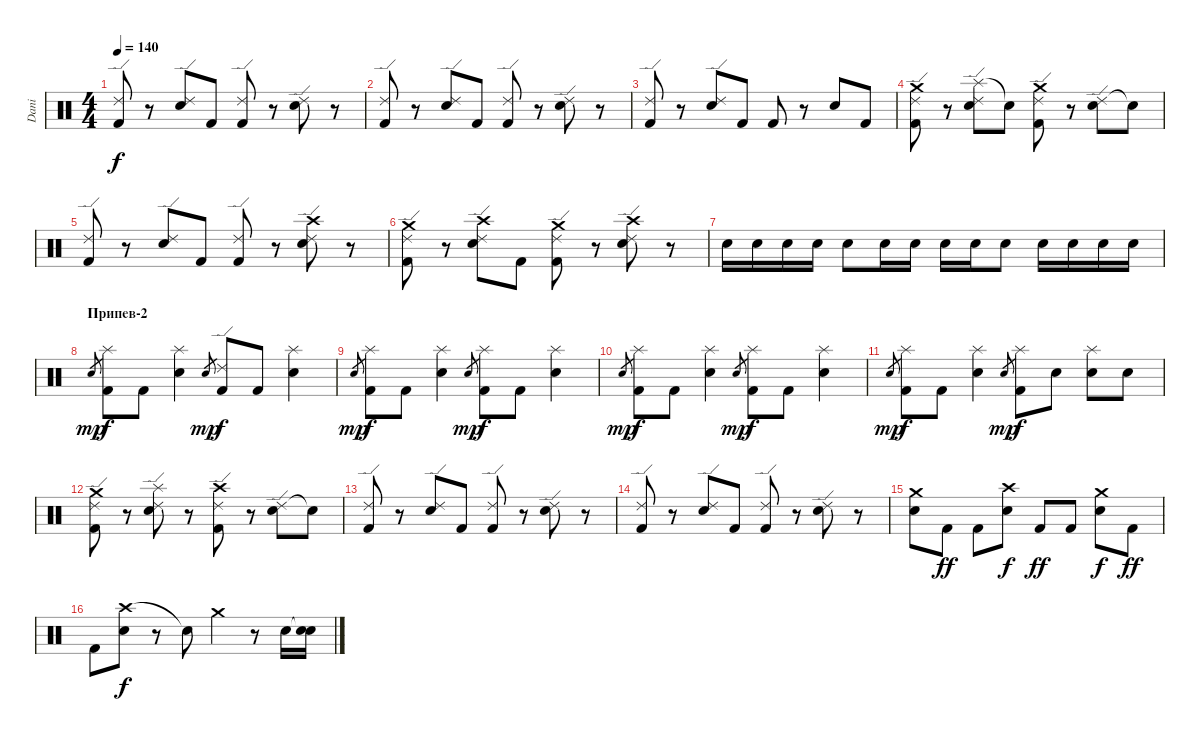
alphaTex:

\track ("Dani" "Dani") {instrument percussion}
\staff {score}
\articulation defaults
\ts (4 4)
\tempo 140
\clef neutral
\ks c
("Ride (edge) 2" "Kick (hit) 2").8{dy f} r.8 ("Ride (edge) 2" "Snare (hit) 2").8 "Kick (hit) 2".8 ("Ride (edge) 2" "Kick (hit) 2").8 r.8 ("Ride (edge) 2" "Snare (hit) 2").8 r.8 |
("Ride (edge) 2" "Kick (hit) 2").8 r.8 ("Ride (edge) 2" "Snare (hit) 2").8 "Kick (hit) 2".8 ("Ride (edge) 2" "Kick (hit) 2").8 r.8 ("Ride (edge) 2" "Snare (hit) 2").8 r.8 |
("Ride (edge) 2" "Kick (hit) 2").8 r.8 ("Ride (edge) 2" "Snare (hit) 2").8 "Kick (hit) 2".8 "Kick (hit) 2".8 r.8 "Snare (hit) 2".8 "Kick (hit) 2".8 |
("Crash medium (hit)" "Ride (edge) 2" "Kick (hit) 2").8 r.8 ("Splash (hit)" "Ride (edge) 2" "Snare (hit) 2").8 "Snare (hit)"{t}.8 ("Crash medium (hit)" "Ride (edge) 2" "Kick (hit) 2").8 r.8 ("Ride (edge) 2" "Snare (hit) 2").8 "Snare (hit)"{t}.8 |
("Ride (edge) 2" "Kick (hit) 2").8 r.8 ("Ride (edge) 2" "Snare (hit) 2").8 "Kick (hit) 2".8 ("Ride (edge) 2" "Kick (hit) 2").8 r.8 ("Crash high (hit)" "Ride (edge) 2" "Snare (hit) 2").8 r.8 |
("Crash medium (hit)" "Ride (edge) 2" "Kick (hit) 2").8 r.8 ("Crash high (hit)" "Ride (edge) 2" "Snare (hit) 2").8 "Kick (hit) 2".8 ("Crash medium (hit)" "Ride (edge) 2" "Kick (hit) 2").8 r.8 ("Crash high (hit)" "Ride (edge) 2" "Snare (hit) 2").8 r.8 |
"Snare (hit) 2".16 "Snare (hit) 2".16 "Snare (hit) 2".16 "Snare (hit) 2".16 "Snare (hit) 2".8 "Snare (hit) 2".16 "Snare (hit) 2".16 "Snare (hit) 2".16 "Snare (hit) 2".16 "Snare (hit) 2".8 "Snare (hit) 2".16 "Snare (hit) 2".16 "Snare (hit) 2".16 "Snare (hit) 2".16 |
\section ("" "Припев-2")
"Snare (hit) 2".8{gr dy mp} ("Splash (hit)" "Kick (hit) 2").8{dy f} "Kick (hit) 2".8 ("Splash (hit)" "Snare (hit) 2").4 "Snare (hit) 2".8{gr dy mp} ("Ride (edge) 2" "Kick (hit) 2").8{dy f} "Kick (hit) 2".8 ("Splash (hit)" "Snare (hit) 2").4 |
"Snare (hit) 2".8{gr dy mp} ("Splash (hit)" "Kick (hit) 2").8{dy f} "Kick (hit) 2".8 ("Splash (hit)" "Snare (hit) 2").4 "Snare (hit) 2".8{gr dy mp} ("Splash (hit)" "Kick (hit) 2").8{dy f} "Kick (hit) 2".8 ("Splash (hit)" "Snare (hit) 2").4 |
"Snare (hit) 2".8{gr dy mp} ("Splash (hit)" "Kick (hit) 2").8{dy f} "Kick (hit) 2".8 ("Splash (hit)" "Snare (hit) 2").4 "Snare (hit) 2".8{gr dy mp} ("Splash (hit)" "Kick (hit) 2").8{dy f} "Kick (hit) 2".8 ("Splash (hit)" "Snare (hit) 2").4 |
"Snare (hit) 2".8{gr dy mp} ("Splash (hit)" "Kick (hit) 2").8{dy f} "Kick (hit) 2".8 ("Splash (hit)" "Snare (hit) 2").4 "Snare (hit) 2".8{gr dy mp} ("Splash (hit)" "Kick (hit) 2").8{dy f} "Snare (hit) 2".8 ("Splash (hit)" "Snare (hit) 2").8 "Snare (hit) 2".8 |
("Crash medium (hit)" "Ride (edge) 2" "Kick (hit) 2").8 r.8 ("Splash (hit)" "Ride (edge) 2" "Snare (hit) 2").8 r.8 ("Crash high (hit)" "Ride (edge) 2" "Kick (hit) 2").8 r.8 ("Ride (edge) 2" "Snare (hit) 2").8 "Snare (hit)"{t}.8 |
("Ride (edge) 2" "Kick (hit) 2").8 r.8 ("Ride (edge) 2" "Snare (hit) 2").8 "Kick (hit) 2".8 ("Ride (edge) 2" "Kick (hit) 2").8 r.8 ("Ride (edge) 2" "Snare (hit) 2").8 r.8 |
("Ride (edge) 2" "Kick (hit) 2").8 r.8 ("Ride (edge) 2" "Snare (hit) 2").8 "Kick (hit) 2".8 ("Ride (edge) 2" "Kick (hit) 2").8 r.8 ("Ride (edge) 2" "Snare (hit) 2").8 r.8 |
("Crash medium (hit)" "Snare (hit) 2").8 "Kick (hit) 2".8{dy ff} "Kick (hit) 2".8 ("Crash high (hit)" "Snare (hit) 2").8{dy f} "Kick (hit) 2".8{dy ff} "Kick (hit) 2".8 ("Crash medium (hit)" "Snare (hit) 2").8{dy f} "Kick (hit) 2".8{dy ff} |
"Kick (hit) 2".8 ("Crash high (hit)" "Snare (hit) 2").8{dy f} r.8 "Snare (hit)"{t}.8 "Crash medium (hit)".4 r.8 "Snare (hit) 2".16 ("Snare (hit)"{t} "Snare (hit) 2").16
